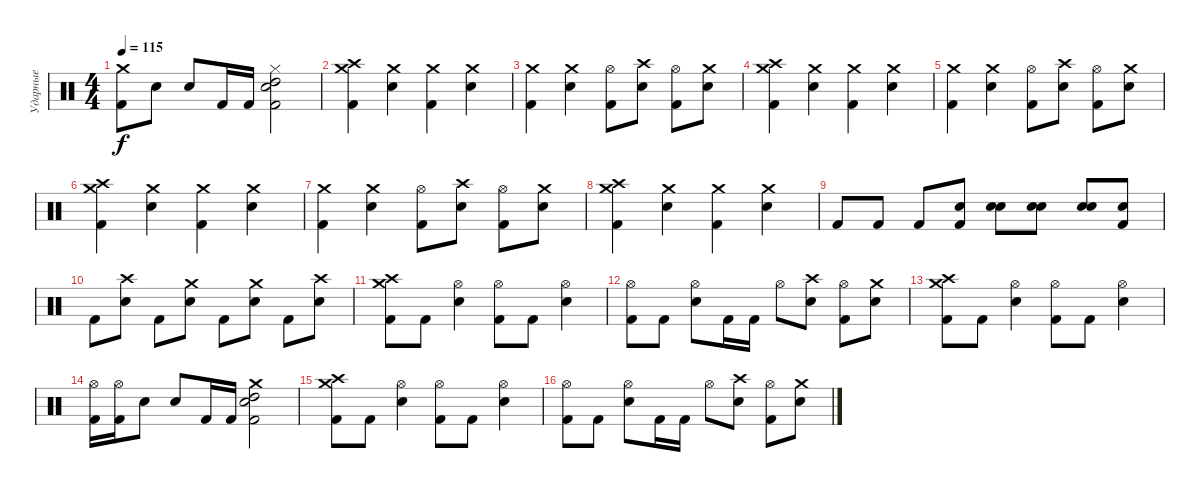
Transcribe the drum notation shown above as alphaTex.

\track ("Ударные" "Ударные") {instrument percussion}
\staff {score}
\articulation defaults
\ts (4 4)
\tempo 115
\clef neutral
\ks c
("Crash medium (hit)" "Kick (hit) 2").8{dy f} "Snare (hit) 2".8 "Snare (hit) 2".8 "Kick (hit) 2".16 "Kick (hit) 2".16 ("High Tom (hit)" "Snare (hit) 2" "Hi-Hat (closed)" "Kick (hit) 2").2 |
("Crash medium (hit)" "Crash high (hit)" "Kick (hit) 2").4 ("Snare (hit) 2" "Crash medium (hit)").4 ("Crash medium (hit)" "Kick (hit) 2").4 ("Snare (hit) 2" "Crash medium (hit)").4 |
("Crash medium (hit)" "Kick (hit) 2").4 ("Snare (hit) 2" "Crash medium (hit)").4 ("Hi-Hat (open)" "Kick (hit) 2").8 ("Crash high (hit)" "Snare (hit) 2").8 ("Hi-Hat (open)" "Kick (hit) 2").8 ("Crash medium (hit)" "Snare (hit) 2").8 |
("Crash medium (hit)" "Crash high (hit)" "Kick (hit) 2").4 ("Snare (hit) 2" "Crash medium (hit)").4 ("Crash medium (hit)" "Kick (hit) 2").4 ("Snare (hit) 2" "Crash medium (hit)").4 |
("Crash medium (hit)" "Kick (hit) 2").4 ("Snare (hit) 2" "Crash medium (hit)").4 ("Hi-Hat (open)" "Kick (hit) 2").8 ("Crash high (hit)" "Snare (hit) 2").8 ("Hi-Hat (open)" "Kick (hit) 2").8 ("Crash medium (hit)" "Snare (hit) 2").8 |
("Crash medium (hit)" "Crash high (hit)" "Kick (hit) 2").4 ("Snare (hit) 2" "Crash medium (hit)").4 ("Crash medium (hit)" "Kick (hit) 2").4 ("Snare (hit) 2" "Crash medium (hit)").4 |
("Crash medium (hit)" "Kick (hit) 2").4 ("Snare (hit) 2" "Crash medium (hit)").4 ("Hi-Hat (open)" "Kick (hit) 2").8 ("Crash high (hit)" "Snare (hit) 2").8 ("Hi-Hat (open)" "Kick (hit) 2").8 ("Crash medium (hit)" "Snare (hit) 2").8 |
("Crash medium (hit)" "Crash high (hit)" "Kick (hit) 2").4 ("Snare (hit) 2" "Crash medium (hit)").4 ("Crash medium (hit)" "Kick (hit) 2").4 ("Snare (hit) 2" "Crash medium (hit)").4 |
"Kick (hit) 2".8 "Kick (hit) 2".8 "Kick (hit) 2".8 ("Snare (hit) 2" "Kick (hit) 2").8 ("Snare (hit) 2" "Snare (hit) 2").8 ("Snare (hit) 2" "Snare (hit) 2").8 ("Snare (hit) 2" "Snare (hit) 2").8 ("Snare (hit) 2" "Kick (hit) 2").8 |
"Kick (hit) 2".8 ("Crash high (hit)" "Snare (hit) 2").8 "Kick (hit) 2".8 ("Crash medium (hit)" "Snare (hit) 2").8 "Kick (hit) 2".8 ("Crash medium (hit)" "Snare (hit) 2").8 "Kick (hit) 2".8 ("Crash high (hit)" "Snare (hit) 2").8 |
("Crash medium (hit)" "Crash high (hit)" "Kick (hit) 2").8 "Kick (hit) 2".8 ("Snare (hit) 2" "Hi-Hat (open)").4 ("Hi-Hat (open)" "Kick (hit) 2").8 "Kick (hit) 2".8 ("Snare (hit) 2" "Hi-Hat (open)").4 |
("Hi-Hat (open)" "Kick (hit) 2").8 "Kick (hit) 2".8 ("Snare (hit) 2" "Hi-Hat (open)").8 "Kick (hit) 2".16 "Kick (hit) 2".16 "Hi-Hat (open)".8 ("Crash high (hit)" "Snare (hit) 2").8 ("Hi-Hat (open)" "Kick (hit) 2").8 ("Crash medium (hit)" "Snare (hit) 2").8 |
("Crash medium (hit)" "Crash high (hit)" "Kick (hit) 2").8 "Kick (hit) 2".8 ("Snare (hit) 2" "Hi-Hat (open)").4 ("Hi-Hat (open)" "Kick (hit) 2").8 "Kick (hit) 2".8 ("Snare (hit) 2" "Hi-Hat (open)").4 |
("Hi-Hat (open)" "Kick (hit) 2").16 ("Hi-Hat (open)" "Kick (hit) 2").16 "Snare (hit) 2".8 "Snare (hit) 2".8 "Kick (hit) 2".16 "Kick (hit) 2".16 ("Crash medium (hit)" "High Tom (hit)" "Snare (hit) 2" "Kick (hit) 2").2 |
("Crash medium (hit)" "Crash high (hit)" "Kick (hit) 2").8 "Kick (hit) 2".8 ("Snare (hit) 2" "Hi-Hat (open)").4 ("Hi-Hat (open)" "Kick (hit) 2").8 "Kick (hit) 2".8 ("Snare (hit) 2" "Hi-Hat (open)").4 |
("Hi-Hat (open)" "Kick (hit) 2").8 "Kick (hit) 2".8 ("Snare (hit) 2" "Hi-Hat (open)").8 "Kick (hit) 2".16 "Kick (hit) 2".16 "Hi-Hat (open)".8 ("Crash high (hit)" "Snare (hit) 2").8 ("Hi-Hat (open)" "Kick (hit) 2").8 ("Crash medium (hit)" "Snare (hit) 2").8
